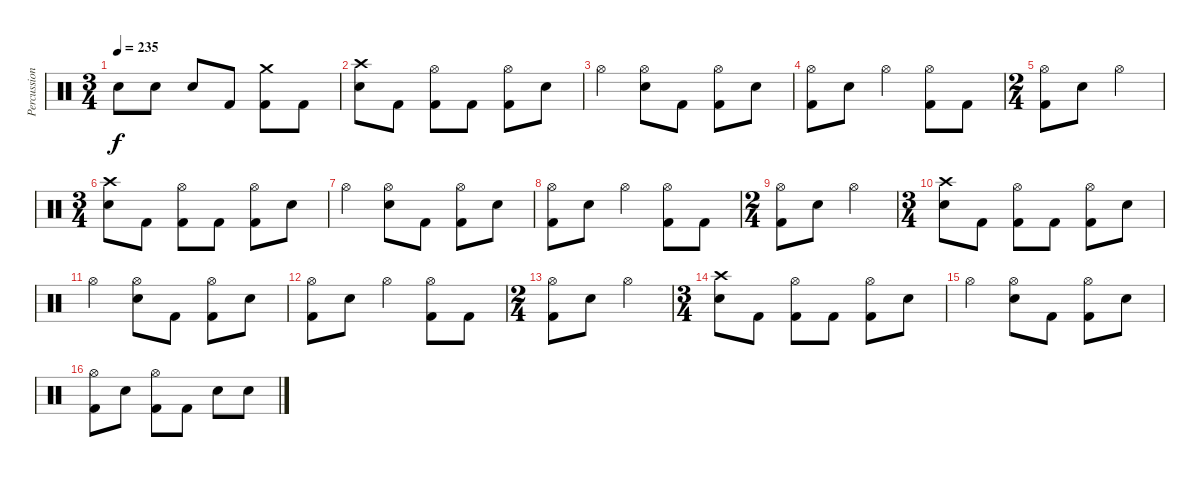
\track ("Percussion" "Percussion") {instrument percussion}
\staff {score}
\articulation defaults
\ts (3 4)
\tempo 235
\clef neutral
\ks c "Electric Snare (hit)".8{dy f} "Electric Snare (hit)".8 "Electric Snare (hit)".8 "Kick (hit) 2".8
("Crash medium (hit)" "Kick (hit) 2").8 "Kick (hit) 2".8 |
("Crash high (hit)" "Electric Snare (hit)").8 "Kick (hit) 2".8 ("Hi-Hat (open)" "Kick (hit) 2").8 "Kick (hit) 2".8 ("Hi-Hat (open)" "Kick (hit) 2").8 "Electric Snare (hit)".8 |
"Hi-Hat (open)".4 ("Hi-Hat (open)" "Electric Snare (hit)").8 "Kick (hit) 2".8 ("Hi-Hat (open)" "Kick (hit) 2").8 "Electric Snare (hit)".8 |
("Hi-Hat (open)" "Kick (hit) 2").8 "Electric Snare (hit)".8 "Hi-Hat (open)".4 ("Hi-Hat (open)" "Kick (hit) 2").8 "Kick (hit) 2".8 |
\ts (2 4)
("Hi-Hat (open)" "Kick (hit) 2").8 "Electric Snare (hit)".8 "Hi-Hat (open)".4 |
\ts (3 4)
("Crash high (hit)" "Electric Snare (hit)").8 "Kick (hit) 2".8 ("Hi-Hat (open)" "Kick (hit) 2").8 "Kick (hit) 2".8 ("Hi-Hat (open)" "Kick (hit) 2").8 "Electric Snare (hit)".8 |
"Hi-Hat (open)".4 ("Hi-Hat (open)" "Electric Snare (hit)").8 "Kick (hit) 2".8 ("Hi-Hat (open)" "Kick (hit) 2").8 "Electric Snare (hit)".8 |
("Hi-Hat (open)" "Kick (hit) 2").8 "Electric Snare (hit)".8 "Hi-Hat (open)".4 ("Hi-Hat (open)" "Kick (hit) 2").8 "Kick (hit) 2".8 |
\ts (2 4)
("Hi-Hat (open)" "Kick (hit) 2").8 "Electric Snare (hit)".8 "Hi-Hat (open)".4 |
\ts (3 4)
("Crash high (hit)" "Electric Snare (hit)").8 "Kick (hit) 2".8 ("Hi-Hat (open)" "Kick (hit) 2").8 "Kick (hit) 2".8 ("Hi-Hat (open)" "Kick (hit) 2").8 "Electric Snare (hit)".8 |
"Hi-Hat (open)".4 ("Hi-Hat (open)" "Electric Snare (hit)").8 "Kick (hit) 2".8 ("Hi-Hat (open)" "Kick (hit) 2").8 "Electric Snare (hit)".8 |
("Hi-Hat (open)" "Kick (hit) 2").8 "Electric Snare (hit)".8 "Hi-Hat (open)".4 ("Hi-Hat (open)" "Kick (hit) 2").8 "Kick (hit) 2".8 |
\ts (2 4)
("Hi-Hat (open)" "Kick (hit) 2").8 "Electric Snare (hit)".8 "Hi-Hat (open)".4 |
\ts (3 4)
("Crash high (hit)" "Electric Snare (hit)").8 "Kick (hit) 2".8 ("Hi-Hat (open)" "Kick (hit) 2").8 "Kick (hit) 2".8 ("Hi-Hat (open)" "Kick (hit) 2").8 "Electric Snare (hit)".8 |
"Hi-Hat (open)".4 ("Hi-Hat (open)" "Electric Snare (hit)").8 "Kick (hit) 2".8 ("Hi-Hat (open)" "Kick (hit) 2").8 "Electric Snare (hit)".8 |
("Hi-Hat (open)" "Kick (hit) 2").8 "Electric Snare (hit)".8 ("Hi-Hat (open)" "Kick (hit) 2").8 "Kick (hit) 2".8 "Electric Snare (hit)".8 "Electric Snare (hit)".8
